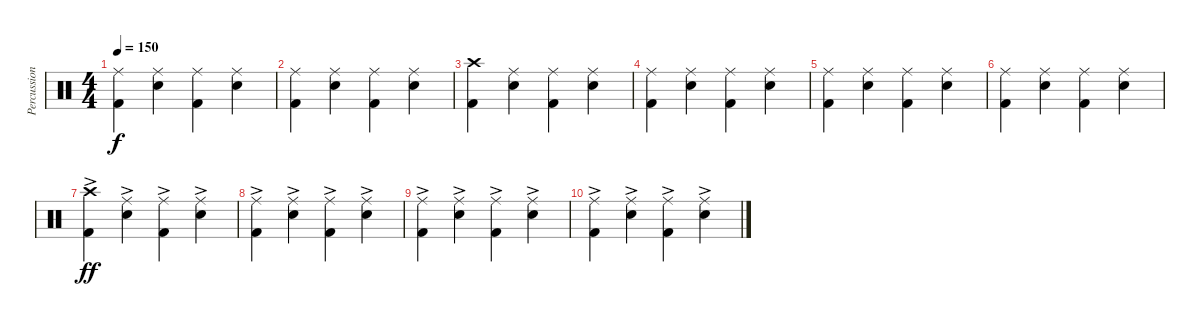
\track ("Percussion" "Percussion") {instrument percussion}
\staff {score}
\articulation defaults
\ts (4 4)
\tempo 150
\clef neutral
\ks c
("Ride (middle)" "Kick (hit) 2").4{dy f} ("Ride (middle)" "Electric Snare (hit)").4 ("Ride (middle)" "Kick (hit) 2").4 ("Ride (middle)" "Electric Snare (hit)").4 |
("Ride (middle)" "Kick (hit) 2").4 ("Ride (middle)" "Electric Snare (hit)").4 ("Ride (middle)" "Kick (hit) 2").4 ("Ride (middle)" "Electric Snare (hit)").4 |
("Crash high (hit)" "Kick (hit) 2").4 ("Ride (middle)" "Electric Snare (hit)").4 ("Ride (middle)" "Kick (hit) 2").4 ("Ride (middle)" "Electric Snare (hit)").4 |
("Ride (middle)" "Kick (hit) 2").4 ("Ride (middle)" "Electric Snare (hit)").4 ("Ride (middle)" "Kick (hit) 2").4 ("Ride (middle)" "Electric Snare (hit)").4 |
("Ride (middle)" "Kick (hit) 2").4 ("Ride (middle)" "Electric Snare (hit)").4 ("Ride (middle)" "Kick (hit) 2").4 ("Ride (middle)" "Electric Snare (hit)").4 |
("Ride (middle)" "Kick (hit) 2").4 ("Ride (middle)" "Electric Snare (hit)").4 ("Ride (middle)" "Kick (hit) 2").4 ("Ride (middle)" "Electric Snare (hit)").4 |
("Crash high (hit)"{ac} "Kick (hit) 2"{ac}).4{dy ff} ("Ride (middle)"{ac} "Electric Snare (hit)"{ac}).4 ("Ride (middle)"{ac} "Kick (hit) 2"{ac}).4 ("Ride (middle)"{ac} "Electric Snare (hit)"{ac}).4 |
("Ride (middle)"{ac} "Kick (hit) 2"{ac}).4 ("Ride (middle)"{ac} "Electric Snare (hit)"{ac}).4 ("Ride (middle)"{ac} "Kick (hit) 2"{ac}).4 ("Ride (middle)"{ac} "Electric Snare (hit)"{ac}).4 |
("Ride (middle)"{ac} "Kick (hit) 2"{ac}).4 ("Ride (middle)"{ac} "Electric Snare (hit)"{ac}).4 ("Ride (middle)"{ac} "Kick (hit) 2"{ac}).4 ("Ride (middle)"{ac} "Electric Snare (hit)"{ac}).4 |
("Ride (middle)"{ac} "Kick (hit) 2"{ac}).4 ("Ride (middle)"{ac} "Electric Snare (hit)"{ac}).4 ("Ride (middle)"{ac} "Kick (hit) 2"{ac}).4 ("Ride (middle)"{ac} "Electric Snare (hit)"{ac}).4
